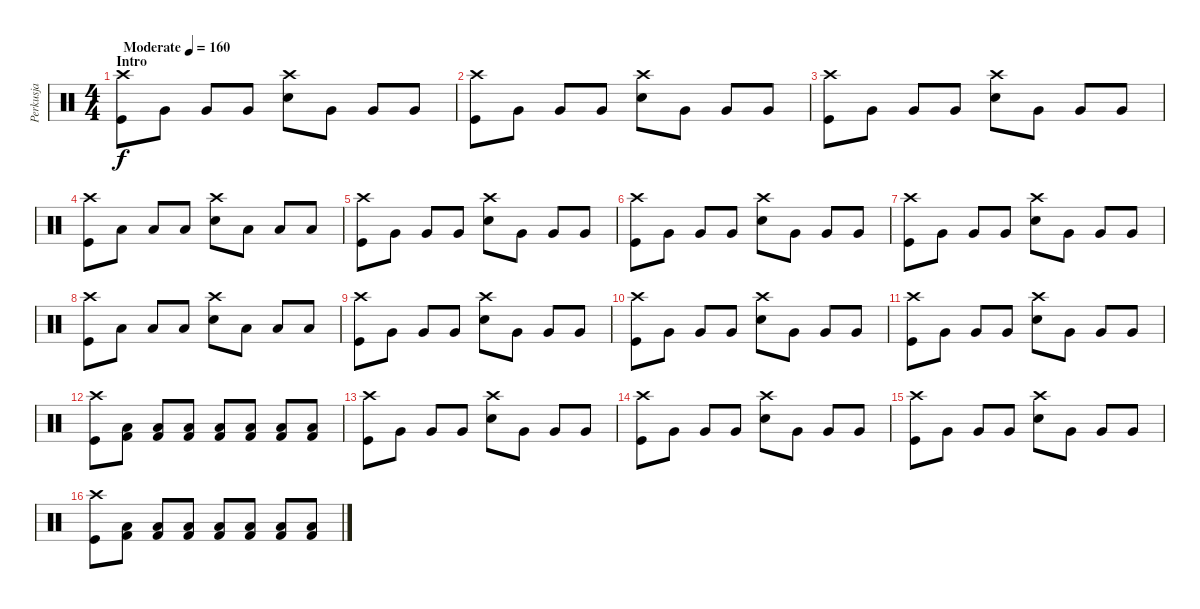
\track ("Perkusja" "Perkusja") {instrument percussion}
\staff {score}
\articulation defaults
\ts (4 4)
\section ("" "Intro")
\tempo (160 "Moderate")
\clef neutral
\ks c
("Crash high (hit)" "Kick (hit)").8{dy f} "Very Low Tom (hit)".8 "Very Low Tom (hit)".8 "Very Low Tom (hit)".8 ("Crash high (hit)" "Electric Snare (hit)").8 "Very Low Tom (hit)".8 "Very Low Tom (hit)".8 "Very Low Tom (hit)".8 |
("Crash high (hit)" "Kick (hit)").8 "Very Low Tom (hit)".8 "Very Low Tom (hit)".8 "Very Low Tom (hit)".8 ("Crash high (hit)" "Electric Snare (hit)").8 "Very Low Tom (hit)".8 "Very Low Tom (hit)".8 "Very Low Tom (hit)".8 |
("Crash high (hit)" "Kick (hit)").8 "Very Low Tom (hit)".8 "Very Low Tom (hit)".8 "Very Low Tom (hit)".8 ("Crash high (hit)" "Electric Snare (hit)").8 "Very Low Tom (hit)".8 "Very Low Tom (hit)".8 "Very Low Tom (hit)".8 |
("Crash high (hit)" "Kick (hit)").8 "Low Floor Tom (hit)".8 "Low Floor Tom (hit)".8 "Low Floor Tom (hit)".8 ("Crash high (hit)" "Electric Snare (hit)").8 "Low Floor Tom (hit)".8 "Low Floor Tom (hit)".8 "Low Floor Tom (hit)".8 |
("Crash high (hit)" "Kick (hit)").8 "Very Low Tom (hit)".8 "Very Low Tom (hit)".8 "Very Low Tom (hit)".8 ("Crash high (hit)" "Electric Snare (hit)").8 "Very Low Tom (hit)".8 "Very Low Tom (hit)".8 "Very Low Tom (hit)".8 |
("Crash high (hit)" "Kick (hit)").8 "Very Low Tom (hit)".8 "Very Low Tom (hit)".8 "Very Low Tom (hit)".8 ("Crash high (hit)" "Electric Snare (hit)").8 "Very Low Tom (hit)".8 "Very Low Tom (hit)".8 "Very Low Tom (hit)".8 |
("Crash high (hit)" "Kick (hit)").8 "Very Low Tom (hit)".8 "Very Low Tom (hit)".8 "Very Low Tom (hit)".8 ("Crash high (hit)" "Electric Snare (hit)").8 "Very Low Tom (hit)".8 "Very Low Tom (hit)".8 "Very Low Tom (hit)".8 |
("Crash high (hit)" "Kick (hit)").8 "Low Floor Tom (hit)".8 "Low Floor Tom (hit)".8 "Low Floor Tom (hit)".8 ("Crash high (hit)" "Electric Snare (hit)").8 "Low Floor Tom (hit)".8 "Low Floor Tom (hit)".8 "Low Floor Tom (hit)".8 |
("Crash high (hit)" "Kick (hit)").8 "Very Low Tom (hit)".8 "Very Low Tom (hit)".8 "Very Low Tom (hit)".8 ("Crash high (hit)" "Electric Snare (hit)").8 "Very Low Tom (hit)".8 "Very Low Tom (hit)".8 "Very Low Tom (hit)".8 |
("Crash high (hit)" "Kick (hit)").8 "Very Low Tom (hit)".8 "Very Low Tom (hit)".8 "Very Low Tom (hit)".8 ("Crash high (hit)" "Electric Snare (hit)").8 "Very Low Tom (hit)".8 "Very Low Tom (hit)".8 "Very Low Tom (hit)".8 |
("Crash high (hit)" "Kick (hit)").8 "Very Low Tom (hit)".8 "Very Low Tom (hit)".8 "Very Low Tom (hit)".8 ("Crash high (hit)" "Electric Snare (hit)").8 "Very Low Tom (hit)".8 "Very Low Tom (hit)".8 "Very Low Tom (hit)".8 |
("Crash high (hit)" "Kick (hit)").8 ("Low Floor Tom (hit)" "Kick (hit) 2").8 ("Low Floor Tom (hit)" "Kick (hit) 2").8 ("Low Floor Tom (hit)" "Kick (hit) 2").8 ("Low Floor Tom (hit)" "Kick (hit) 2").8 ("Low Floor Tom (hit)" "Kick (hit) 2").8 ("Low Floor Tom (hit)" "Kick (hit) 2").8 ("Low Floor Tom (hit)" "Kick (hit) 2").8 |
("Crash high (hit)" "Kick (hit)").8 "Very Low Tom (hit)".8 "Very Low Tom (hit)".8 "Very Low Tom (hit)".8 ("Crash high (hit)" "Electric Snare (hit)").8 "Very Low Tom (hit)".8 "Very Low Tom (hit)".8 "Very Low Tom (hit)".8 |
("Crash high (hit)" "Kick (hit)").8 "Very Low Tom (hit)".8 "Very Low Tom (hit)".8 "Very Low Tom (hit)".8 ("Crash high (hit)" "Electric Snare (hit)").8 "Very Low Tom (hit)".8 "Very Low Tom (hit)".8 "Very Low Tom (hit)".8 |
("Crash high (hit)" "Kick (hit)").8 "Very Low Tom (hit)".8 "Very Low Tom (hit)".8 "Very Low Tom (hit)".8 ("Crash high (hit)" "Electric Snare (hit)").8 "Very Low Tom (hit)".8 "Very Low Tom (hit)".8 "Very Low Tom (hit)".8 |
("Crash high (hit)" "Kick (hit)").8 ("Low Floor Tom (hit)" "Kick (hit) 2").8 ("Low Floor Tom (hit)" "Kick (hit) 2").8 ("Low Floor Tom (hit)" "Kick (hit) 2").8 ("Low Floor Tom (hit)" "Kick (hit) 2").8 ("Low Floor Tom (hit)" "Kick (hit) 2").8 ("Low Floor Tom (hit)" "Kick (hit) 2").8 ("Low Floor Tom (hit)" "Kick (hit) 2").8
